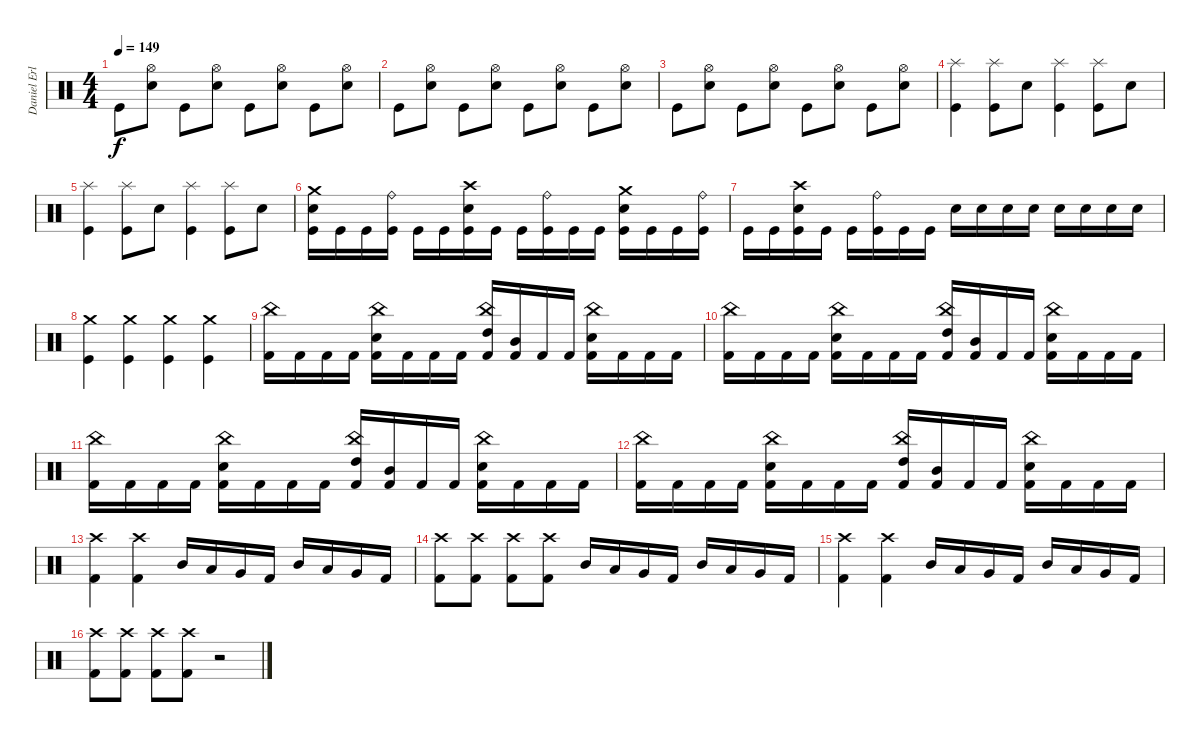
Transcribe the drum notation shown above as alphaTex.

\track ("Daniel Erlandsson" "Daniel Erl") {instrument percussion}
\staff {score}
\articulation defaults
\ts (4 4)
\tempo 149
\clef neutral
\ks c "Kick (hit)".8{dy f}
("Electric Snare (hit)" "Hi-Hat (open)").8 "Kick (hit)".8 ("Electric Snare (hit)" "Hi-Hat (open)").8 "Kick (hit)".8 ("Electric Snare (hit)" "Hi-Hat (open)").8 "Kick (hit)".8 ("Electric Snare (hit)" "Hi-Hat (open)").8 |
"Kick (hit)".8 ("Electric Snare (hit)" "Hi-Hat (open)").8 "Kick (hit)".8 ("Electric Snare (hit)" "Hi-Hat (open)").8 "Kick (hit)".8 ("Electric Snare (hit)" "Hi-Hat (open)").8 "Kick (hit)".8 ("Electric Snare (hit)" "Hi-Hat (open)").8 |
"Kick (hit)".8 ("Electric Snare (hit)" "Hi-Hat (open)").8 "Kick (hit)".8 ("Electric Snare (hit)" "Hi-Hat (open)").8 "Kick (hit)".8 ("Electric Snare (hit)" "Hi-Hat (open)").8 "Kick (hit)".8 ("Electric Snare (hit)" "Hi-Hat (open)").8 |
("Kick (hit)" "Splash (hit)").4 ("Kick (hit)" "Splash (hit)").8 "Electric Snare (hit)".8 ("Kick (hit)" "Splash (hit)").4 ("Kick (hit)" "Splash (hit)").8 "Electric Snare (hit)".8 |
("Kick (hit)" "Splash (hit)").4 ("Kick (hit)" "Splash (hit)").8 "Electric Snare (hit)".8 ("Kick (hit)" "Splash (hit)").4 ("Kick (hit)" "Splash (hit)").8 "Electric Snare (hit)".8 |
("Kick (hit)" "Electric Snare (hit)" "Crash medium (hit)").16 "Kick (hit)".16 "Kick (hit)".16 ("Kick (hit)" "Ride (bell)").16 "Kick (hit)".16 "Kick (hit)".16 ("Kick (hit)" "Electric Snare (hit)" "Crash high (hit)").16 "Kick (hit)".16 "Kick (hit)".16 ("Kick (hit)" "Ride (bell)").16 "Kick (hit)".16 "Kick (hit)".16 ("Kick (hit)" "Electric Snare (hit)" "Crash medium (hit)").16 "Kick (hit)".16 "Kick (hit)".16 ("Kick (hit)" "Ride (bell)").16 |
"Kick (hit)".16 "Kick (hit)".16 ("Kick (hit)" "Electric Snare (hit)" "Crash high (hit)").16 "Kick (hit)".16 "Kick (hit)".16 ("Kick (hit)" "Ride (bell)").16 "Kick (hit)".16 "Kick (hit)".16 "Electric Snare (hit)".16 "Electric Snare (hit)".16 "Electric Snare (hit)".16 "Electric Snare (hit)".16 "Electric Snare (hit)".16 "Electric Snare (hit)".16 "Electric Snare (hit)".16 "Electric Snare (hit)".16 |
("Kick (hit)" "Crash medium (hit)").4 ("Kick (hit)" "Crash medium (hit)").4 ("Kick (hit)" "Crash medium (hit)").4 ("Kick (hit)" "Crash medium (hit)").4 |
("Kick (hit) 2" "China (hit)").16 "Kick (hit) 2".16 "Kick (hit) 2".16 "Kick (hit) 2".16 ("Kick (hit) 2" "Electric Snare (hit)" "China (hit)").16 "Kick (hit) 2".16 "Kick (hit) 2".16 "Kick (hit) 2".16 ("Kick (hit) 2" "High Tom (hit)" "China (hit)").16 ("Kick (hit) 2" "Mid Tom (hit)").16 "Kick (hit) 2".16 "Kick (hit) 2".16 ("Kick (hit) 2" "Electric Snare (hit)" "China (hit)").16 "Kick (hit) 2".16 "Kick (hit) 2".16 "Kick (hit) 2".16 |
("Kick (hit) 2" "China (hit)").16 "Kick (hit) 2".16 "Kick (hit) 2".16 "Kick (hit) 2".16 ("Kick (hit) 2" "Electric Snare (hit)" "China (hit)").16 "Kick (hit) 2".16 "Kick (hit) 2".16 "Kick (hit) 2".16 ("Kick (hit) 2" "High Tom (hit)" "China (hit)").16 ("Kick (hit) 2" "Mid Tom (hit)").16 "Kick (hit) 2".16 "Kick (hit) 2".16 ("Kick (hit) 2" "Electric Snare (hit)" "China (hit)").16 "Kick (hit) 2".16 "Kick (hit) 2".16 "Kick (hit) 2".16 |
("Kick (hit) 2" "China (hit)").16 "Kick (hit) 2".16 "Kick (hit) 2".16 "Kick (hit) 2".16 ("Kick (hit) 2" "Electric Snare (hit)" "China (hit)").16 "Kick (hit) 2".16 "Kick (hit) 2".16 "Kick (hit) 2".16 ("Kick (hit) 2" "High Tom (hit)" "China (hit)").16 ("Kick (hit) 2" "Mid Tom (hit)").16 "Kick (hit) 2".16 "Kick (hit) 2".16 ("Kick (hit) 2" "Electric Snare (hit)" "China (hit)").16 "Kick (hit) 2".16 "Kick (hit) 2".16 "Kick (hit) 2".16 |
("Kick (hit) 2" "China (hit)").16 "Kick (hit) 2".16 "Kick (hit) 2".16 "Kick (hit) 2".16 ("Kick (hit) 2" "Electric Snare (hit)" "China (hit)").16 "Kick (hit) 2".16 "Kick (hit) 2".16 "Kick (hit) 2".16 ("Kick (hit) 2" "High Tom (hit)" "China (hit)").16 ("Kick (hit) 2" "Mid Tom (hit)").16 "Kick (hit) 2".16 "Kick (hit) 2".16 ("Kick (hit) 2" "Electric Snare (hit)" "China (hit)").16 "Kick (hit) 2".16 "Kick (hit) 2".16 "Kick (hit) 2".16 |
("Kick (hit) 2" "Crash high (hit)").4 ("Kick (hit) 2" "Crash high (hit)").4 "Mid Tom (hit)".16 "Low Tom (hit)".16 "Very Low Tom (hit)".16 "Kick (hit) 2".16 "Mid Tom (hit)".16 "Low Tom (hit)".16 "Very Low Tom (hit)".16 "Kick (hit) 2".16 |
("Kick (hit) 2" "Crash high (hit)").8 ("Kick (hit) 2" "Crash high (hit)").8 ("Kick (hit) 2" "Crash high (hit)").8 ("Kick (hit) 2" "Crash high (hit)").8 "Mid Tom (hit)".16 "Low Tom (hit)".16 "Very Low Tom (hit)".16 "Kick (hit) 2".16 "Mid Tom (hit)".16 "Low Tom (hit)".16 "Very Low Tom (hit)".16 "Kick (hit) 2".16 |
("Kick (hit) 2" "Crash high (hit)").4 ("Kick (hit) 2" "Crash high (hit)").4 "Mid Tom (hit)".16 "Low Tom (hit)".16 "Very Low Tom (hit)".16 "Kick (hit) 2".16 "Mid Tom (hit)".16 "Low Tom (hit)".16 "Very Low Tom (hit)".16 "Kick (hit) 2".16 |
("Kick (hit) 2" "Crash high (hit)").8 ("Kick (hit) 2" "Crash high (hit)").8 ("Kick (hit) 2" "Crash high (hit)").8 ("Kick (hit) 2" "Crash high (hit)").8 r.2
